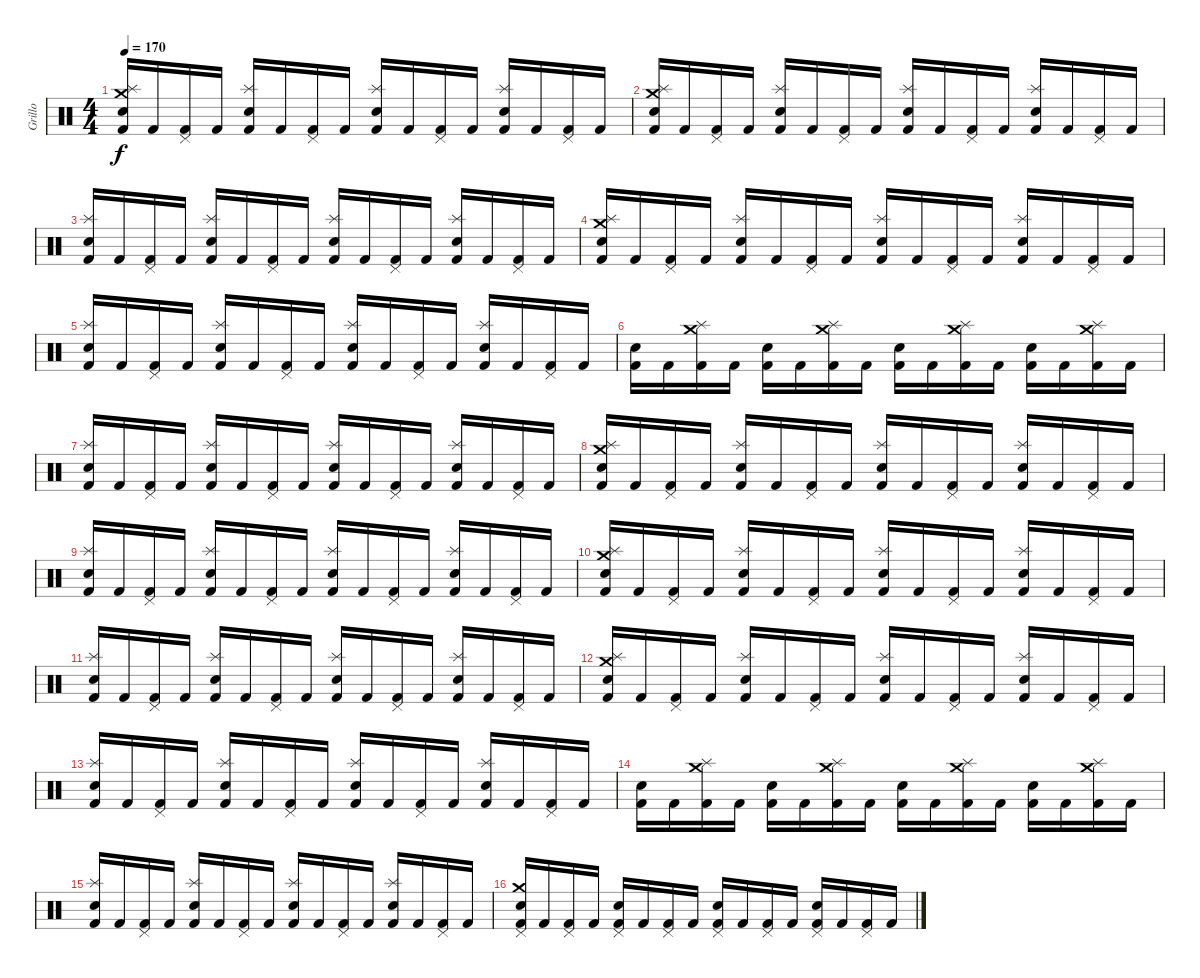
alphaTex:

\track ("Grillo" "Grillo") {instrument percussion}
\staff {score}
\articulation defaults
\ts (4 4)
\tempo 170
\clef neutral
\ks c
("Electric Snare (hit)" "Splash (hit)" "Crash medium (hit)" "Kick (hit) 2").16{dy f} "Kick (hit) 2".16 ("Pedal Hi-Hat (hit)" "Kick (hit) 2").16 "Kick (hit) 2".16 ("Electric Snare (hit)" "Splash (hit)" "Kick (hit) 2").16 "Kick (hit) 2".16 ("Pedal Hi-Hat (hit)" "Kick (hit) 2").16 "Kick (hit) 2".16 ("Electric Snare (hit)" "Splash (hit)" "Kick (hit) 2").16 "Kick (hit) 2".16 ("Pedal Hi-Hat (hit)" "Kick (hit) 2").16 "Kick (hit) 2".16 ("Electric Snare (hit)" "Splash (hit)" "Kick (hit) 2").16 "Kick (hit) 2".16 ("Pedal Hi-Hat (hit)" "Kick (hit) 2").16 "Kick (hit) 2".16 |
("Electric Snare (hit)" "Splash (hit)" "Crash medium (hit)" "Kick (hit) 2").16 "Kick (hit) 2".16 ("Pedal Hi-Hat (hit)" "Kick (hit) 2").16 "Kick (hit) 2".16 ("Electric Snare (hit)" "Splash (hit)" "Kick (hit) 2").16 "Kick (hit) 2".16 ("Pedal Hi-Hat (hit)" "Kick (hit) 2").16 "Kick (hit) 2".16 ("Electric Snare (hit)" "Splash (hit)" "Kick (hit) 2").16 "Kick (hit) 2".16 ("Pedal Hi-Hat (hit)" "Kick (hit) 2").16 "Kick (hit) 2".16 ("Electric Snare (hit)" "Splash (hit)" "Kick (hit) 2").16 "Kick (hit) 2".16 ("Pedal Hi-Hat (hit)" "Kick (hit) 2").16 "Kick (hit) 2".16 |
("Electric Snare (hit)" "Splash (hit)" "Kick (hit) 2").16 "Kick (hit) 2".16 ("Pedal Hi-Hat (hit)" "Kick (hit) 2").16 "Kick (hit) 2".16 ("Electric Snare (hit)" "Splash (hit)" "Kick (hit) 2").16 "Kick (hit) 2".16 ("Pedal Hi-Hat (hit)" "Kick (hit) 2").16 "Kick (hit) 2".16 ("Electric Snare (hit)" "Splash (hit)" "Kick (hit) 2").16 "Kick (hit) 2".16 ("Pedal Hi-Hat (hit)" "Kick (hit) 2").16 "Kick (hit) 2".16 ("Electric Snare (hit)" "Splash (hit)" "Kick (hit) 2").16 "Kick (hit) 2".16 ("Pedal Hi-Hat (hit)" "Kick (hit) 2").16 "Kick (hit) 2".16 |
("Electric Snare (hit)" "Splash (hit)" "Crash medium (hit)" "Kick (hit) 2").16 "Kick (hit) 2".16 ("Pedal Hi-Hat (hit)" "Kick (hit) 2").16 "Kick (hit) 2".16 ("Electric Snare (hit)" "Splash (hit)" "Kick (hit) 2").16 "Kick (hit) 2".16 ("Pedal Hi-Hat (hit)" "Kick (hit) 2").16 "Kick (hit) 2".16 ("Electric Snare (hit)" "Splash (hit)" "Kick (hit) 2").16 "Kick (hit) 2".16 ("Pedal Hi-Hat (hit)" "Kick (hit) 2").16 "Kick (hit) 2".16 ("Electric Snare (hit)" "Splash (hit)" "Kick (hit) 2").16 "Kick (hit) 2".16 ("Pedal Hi-Hat (hit)" "Kick (hit) 2").16 "Kick (hit) 2".16 |
("Electric Snare (hit)" "Splash (hit)" "Kick (hit) 2").16 "Kick (hit) 2".16 ("Pedal Hi-Hat (hit)" "Kick (hit) 2").16 "Kick (hit) 2".16 ("Electric Snare (hit)" "Splash (hit)" "Kick (hit) 2").16 "Kick (hit) 2".16 ("Pedal Hi-Hat (hit)" "Kick (hit) 2").16 "Kick (hit) 2".16 ("Electric Snare (hit)" "Splash (hit)" "Kick (hit) 2").16 "Kick (hit) 2".16 ("Pedal Hi-Hat (hit)" "Kick (hit) 2").16 "Kick (hit) 2".16 ("Electric Snare (hit)" "Splash (hit)" "Kick (hit) 2").16 "Kick (hit) 2".16 ("Pedal Hi-Hat (hit)" "Kick (hit) 2").16 "Kick (hit) 2".16 |
("Electric Snare (hit)" "Kick (hit) 2").16 "Kick (hit) 2".16 ("Crash medium (hit)" "Splash (hit)" "Kick (hit) 2").16 "Kick (hit) 2".16 ("Electric Snare (hit)" "Kick (hit) 2").16 "Kick (hit) 2".16 ("Splash (hit)" "Crash medium (hit)" "Kick (hit) 2").16 "Kick (hit) 2".16 ("Electric Snare (hit)" "Kick (hit) 2").16 "Kick (hit) 2".16 ("Splash (hit)" "Crash medium (hit)" "Kick (hit) 2").16 "Kick (hit) 2".16 ("Electric Snare (hit)" "Kick (hit) 2").16 "Kick (hit) 2".16 ("Crash medium (hit)" "Splash (hit)" "Kick (hit) 2").16 "Kick (hit) 2".16 |
("Electric Snare (hit)" "Splash (hit)" "Kick (hit) 2").16 "Kick (hit) 2".16 ("Pedal Hi-Hat (hit)" "Kick (hit) 2").16 "Kick (hit) 2".16 ("Electric Snare (hit)" "Splash (hit)" "Kick (hit) 2").16 "Kick (hit) 2".16 ("Pedal Hi-Hat (hit)" "Kick (hit) 2").16 "Kick (hit) 2".16 ("Electric Snare (hit)" "Splash (hit)" "Kick (hit) 2").16 "Kick (hit) 2".16 ("Pedal Hi-Hat (hit)" "Kick (hit) 2").16 "Kick (hit) 2".16 ("Electric Snare (hit)" "Splash (hit)" "Kick (hit) 2").16 "Kick (hit) 2".16 ("Pedal Hi-Hat (hit)" "Kick (hit) 2").16 "Kick (hit) 2".16 |
("Electric Snare (hit)" "Splash (hit)" "Crash medium (hit)" "Kick (hit) 2").16 "Kick (hit) 2".16 ("Pedal Hi-Hat (hit)" "Kick (hit) 2").16 "Kick (hit) 2".16 ("Electric Snare (hit)" "Splash (hit)" "Kick (hit) 2").16 "Kick (hit) 2".16 ("Pedal Hi-Hat (hit)" "Kick (hit) 2").16 "Kick (hit) 2".16 ("Electric Snare (hit)" "Splash (hit)" "Kick (hit) 2").16 "Kick (hit) 2".16 ("Pedal Hi-Hat (hit)" "Kick (hit) 2").16 "Kick (hit) 2".16 ("Electric Snare (hit)" "Splash (hit)" "Kick (hit) 2").16 "Kick (hit) 2".16 ("Pedal Hi-Hat (hit)" "Kick (hit) 2").16 "Kick (hit) 2".16 |
("Electric Snare (hit)" "Splash (hit)" "Kick (hit) 2").16 "Kick (hit) 2".16 ("Pedal Hi-Hat (hit)" "Kick (hit) 2").16 "Kick (hit) 2".16 ("Electric Snare (hit)" "Splash (hit)" "Kick (hit) 2").16 "Kick (hit) 2".16 ("Pedal Hi-Hat (hit)" "Kick (hit) 2").16 "Kick (hit) 2".16 ("Electric Snare (hit)" "Splash (hit)" "Kick (hit) 2").16 "Kick (hit) 2".16 ("Pedal Hi-Hat (hit)" "Kick (hit) 2").16 "Kick (hit) 2".16 ("Electric Snare (hit)" "Splash (hit)" "Kick (hit) 2").16 "Kick (hit) 2".16 ("Pedal Hi-Hat (hit)" "Kick (hit) 2").16 "Kick (hit) 2".16 |
("Electric Snare (hit)" "Splash (hit)" "Crash medium (hit)" "Kick (hit) 2").16 "Kick (hit) 2".16 ("Pedal Hi-Hat (hit)" "Kick (hit) 2").16 "Kick (hit) 2".16 ("Electric Snare (hit)" "Splash (hit)" "Kick (hit) 2").16 "Kick (hit) 2".16 ("Pedal Hi-Hat (hit)" "Kick (hit) 2").16 "Kick (hit) 2".16 ("Electric Snare (hit)" "Splash (hit)" "Kick (hit) 2").16 "Kick (hit) 2".16 ("Pedal Hi-Hat (hit)" "Kick (hit) 2").16 "Kick (hit) 2".16 ("Electric Snare (hit)" "Splash (hit)" "Kick (hit) 2").16 "Kick (hit) 2".16 ("Pedal Hi-Hat (hit)" "Kick (hit) 2").16 "Kick (hit) 2".16 |
("Electric Snare (hit)" "Splash (hit)" "Kick (hit) 2").16 "Kick (hit) 2".16 ("Pedal Hi-Hat (hit)" "Kick (hit) 2").16 "Kick (hit) 2".16 ("Electric Snare (hit)" "Splash (hit)" "Kick (hit) 2").16 "Kick (hit) 2".16 ("Pedal Hi-Hat (hit)" "Kick (hit) 2").16 "Kick (hit) 2".16 ("Electric Snare (hit)" "Splash (hit)" "Kick (hit) 2").16 "Kick (hit) 2".16 ("Pedal Hi-Hat (hit)" "Kick (hit) 2").16 "Kick (hit) 2".16 ("Electric Snare (hit)" "Splash (hit)" "Kick (hit) 2").16 "Kick (hit) 2".16 ("Pedal Hi-Hat (hit)" "Kick (hit) 2").16 "Kick (hit) 2".16 |
("Electric Snare (hit)" "Splash (hit)" "Crash medium (hit)" "Kick (hit) 2").16 "Kick (hit) 2".16 ("Pedal Hi-Hat (hit)" "Kick (hit) 2").16 "Kick (hit) 2".16 ("Electric Snare (hit)" "Splash (hit)" "Kick (hit) 2").16 "Kick (hit) 2".16 ("Pedal Hi-Hat (hit)" "Kick (hit) 2").16 "Kick (hit) 2".16 ("Electric Snare (hit)" "Splash (hit)" "Kick (hit) 2").16 "Kick (hit) 2".16 ("Pedal Hi-Hat (hit)" "Kick (hit) 2").16 "Kick (hit) 2".16 ("Electric Snare (hit)" "Splash (hit)" "Kick (hit) 2").16 "Kick (hit) 2".16 ("Pedal Hi-Hat (hit)" "Kick (hit) 2").16 "Kick (hit) 2".16 |
("Electric Snare (hit)" "Splash (hit)" "Kick (hit) 2").16 "Kick (hit) 2".16 ("Pedal Hi-Hat (hit)" "Kick (hit) 2").16 "Kick (hit) 2".16 ("Electric Snare (hit)" "Splash (hit)" "Kick (hit) 2").16 "Kick (hit) 2".16 ("Pedal Hi-Hat (hit)" "Kick (hit) 2").16 "Kick (hit) 2".16 ("Electric Snare (hit)" "Splash (hit)" "Kick (hit) 2").16 "Kick (hit) 2".16 ("Pedal Hi-Hat (hit)" "Kick (hit) 2").16 "Kick (hit) 2".16 ("Electric Snare (hit)" "Splash (hit)" "Kick (hit) 2").16 "Kick (hit) 2".16 ("Pedal Hi-Hat (hit)" "Kick (hit) 2").16 "Kick (hit) 2".16 |
("Electric Snare (hit)" "Kick (hit) 2").16 "Kick (hit) 2".16 ("Crash medium (hit)" "Splash (hit)" "Kick (hit) 2").16 "Kick (hit) 2".16 ("Electric Snare (hit)" "Kick (hit) 2").16 "Kick (hit) 2".16 ("Splash (hit)" "Crash medium (hit)" "Kick (hit) 2").16 "Kick (hit) 2".16 ("Electric Snare (hit)" "Kick (hit) 2").16 "Kick (hit) 2".16 ("Splash (hit)" "Crash medium (hit)" "Kick (hit) 2").16 "Kick (hit) 2".16 ("Electric Snare (hit)" "Kick (hit) 2").16 "Kick (hit) 2".16 ("Crash medium (hit)" "Splash (hit)" "Kick (hit) 2").16 "Kick (hit) 2".16 |
("Electric Snare (hit)" "Splash (hit)" "Kick (hit) 2").16 "Kick (hit) 2".16 ("Pedal Hi-Hat (hit)" "Kick (hit) 2").16 "Kick (hit) 2".16 ("Electric Snare (hit)" "Splash (hit)" "Kick (hit) 2").16 "Kick (hit) 2".16 ("Pedal Hi-Hat (hit)" "Kick (hit) 2").16 "Kick (hit) 2".16 ("Electric Snare (hit)" "Splash (hit)" "Kick (hit) 2").16 "Kick (hit) 2".16 ("Pedal Hi-Hat (hit)" "Kick (hit) 2").16 "Kick (hit) 2".16 ("Electric Snare (hit)" "Splash (hit)" "Kick (hit) 2").16 "Kick (hit) 2".16 ("Pedal Hi-Hat (hit)" "Kick (hit) 2").16 "Kick (hit) 2".16 |
("Electric Snare (hit)" "Pedal Hi-Hat (hit)" "Crash medium (hit)" "Kick (hit) 2").16 "Kick (hit) 2".16 ("Pedal Hi-Hat (hit)" "Kick (hit) 2").16 "Kick (hit) 2".16 ("Electric Snare (hit)" "Pedal Hi-Hat (hit)" "Kick (hit) 2").16 "Kick (hit) 2".16 ("Pedal Hi-Hat (hit)" "Kick (hit) 2").16 "Kick (hit) 2".16 ("Electric Snare (hit)" "Pedal Hi-Hat (hit)" "Kick (hit) 2").16 "Kick (hit) 2".16 ("Pedal Hi-Hat (hit)" "Kick (hit) 2").16 "Kick (hit) 2".16 ("Electric Snare (hit)" "Pedal Hi-Hat (hit)" "Kick (hit) 2").16 "Kick (hit) 2".16 ("Pedal Hi-Hat (hit)" "Kick (hit) 2").16 "Kick (hit) 2".16
